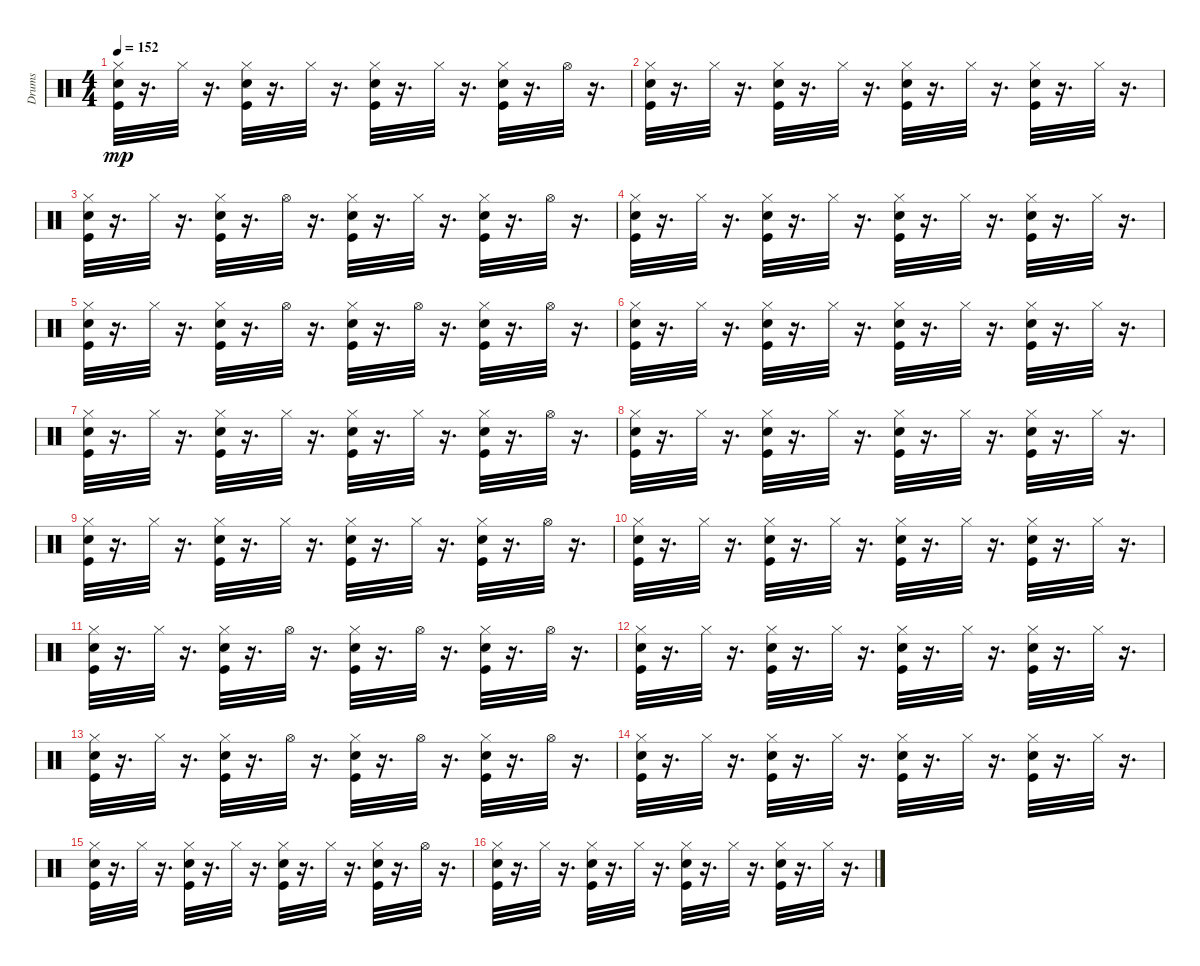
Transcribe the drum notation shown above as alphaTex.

\track ("Drums   " "Drums   ") {instrument percussion}
\staff {score}
\articulation defaults
\ts (4 4)
\tempo 152
\clef neutral
\ks c
("Snare (hit) 2" "Hi-Hat (closed)" "Kick (hit)").32{dy mp} r.16{d} "Hi-Hat (closed)".32 r.16{d} ("Snare (hit) 2" "Hi-Hat (closed)" "Kick (hit)").32 r.16{d} "Hi-Hat (closed)".32 r.16{d} ("Snare (hit) 2" "Hi-Hat (closed)" "Kick (hit)").32 r.16{d} "Hi-Hat (closed)".32 r.16{d} ("Snare (hit) 2" "Hi-Hat (closed)" "Kick (hit)").32 r.16{d} "Hi-Hat (open)".32 r.16{d} |
("Snare (hit) 2" "Hi-Hat (closed)" "Kick (hit)").32 r.16{d} "Hi-Hat (closed)".32 r.16{d} ("Snare (hit) 2" "Hi-Hat (closed)" "Kick (hit)").32 r.16{d} "Hi-Hat (closed)".32 r.16{d} ("Snare (hit) 2" "Hi-Hat (closed)" "Kick (hit)").32 r.16{d} "Hi-Hat (closed)".32 r.16{d} ("Snare (hit) 2" "Hi-Hat (closed)" "Kick (hit)").32 r.16{d} "Hi-Hat (closed)".32 r.16{d} |
("Snare (hit) 2" "Hi-Hat (closed)" "Kick (hit)").32 r.16{d} "Hi-Hat (closed)".32 r.16{d} ("Snare (hit) 2" "Hi-Hat (closed)" "Kick (hit)").32 r.16{d} "Hi-Hat (open)".32 r.16{d} ("Snare (hit) 2" "Hi-Hat (closed)" "Kick (hit)").32 r.16{d} "Hi-Hat (closed)".32 r.16{d} ("Snare (hit) 2" "Hi-Hat (closed)" "Kick (hit)").32 r.16{d} "Hi-Hat (open)".32 r.16{d} |
("Snare (hit) 2" "Hi-Hat (closed)" "Kick (hit)").32 r.16{d} "Hi-Hat (closed)".32 r.16{d} ("Snare (hit) 2" "Hi-Hat (closed)" "Kick (hit)").32 r.16{d} "Hi-Hat (closed)".32 r.16{d} ("Snare (hit) 2" "Hi-Hat (closed)" "Kick (hit)").32 r.16{d} "Hi-Hat (closed)".32 r.16{d} ("Snare (hit) 2" "Hi-Hat (closed)" "Kick (hit)").32 r.16{d} "Hi-Hat (closed)".32 r.16{d} |
("Snare (hit) 2" "Hi-Hat (closed)" "Kick (hit)").32 r.16{d} "Hi-Hat (closed)".32 r.16{d} ("Snare (hit) 2" "Hi-Hat (closed)" "Kick (hit)").32 r.16{d} "Hi-Hat (open)".32 r.16{d} ("Snare (hit) 2" "Hi-Hat (closed)" "Kick (hit)").32 r.16{d} "Hi-Hat (open)".32 r.16{d} ("Snare (hit) 2" "Hi-Hat (closed)" "Kick (hit)").32 r.16{d} "Hi-Hat (open)".32 r.16{d} |
("Snare (hit) 2" "Hi-Hat (closed)" "Kick (hit)").32 r.16{d} "Hi-Hat (closed)".32 r.16{d} ("Snare (hit) 2" "Hi-Hat (closed)" "Kick (hit)").32 r.16{d} "Hi-Hat (closed)".32 r.16{d} ("Snare (hit) 2" "Hi-Hat (closed)" "Kick (hit)").32 r.16{d} "Hi-Hat (closed)".32 r.16{d} ("Snare (hit) 2" "Hi-Hat (closed)" "Kick (hit)").32 r.16{d} "Hi-Hat (closed)".32 r.16{d} |
("Snare (hit) 2" "Hi-Hat (closed)" "Kick (hit)").32 r.16{d} "Hi-Hat (closed)".32 r.16{d} ("Snare (hit) 2" "Hi-Hat (closed)" "Kick (hit)").32 r.16{d} "Hi-Hat (closed)".32 r.16{d} ("Snare (hit) 2" "Hi-Hat (closed)" "Kick (hit)").32 r.16{d} "Hi-Hat (closed)".32 r.16{d} ("Snare (hit) 2" "Hi-Hat (closed)" "Kick (hit)").32 r.16{d} "Hi-Hat (open)".32 r.16{d} |
("Snare (hit) 2" "Hi-Hat (closed)" "Kick (hit)").32 r.16{d} "Hi-Hat (closed)".32 r.16{d} ("Snare (hit) 2" "Hi-Hat (closed)" "Kick (hit)").32 r.16{d} "Hi-Hat (closed)".32 r.16{d} ("Snare (hit) 2" "Hi-Hat (closed)" "Kick (hit)").32 r.16{d} "Hi-Hat (closed)".32 r.16{d} ("Snare (hit) 2" "Hi-Hat (closed)" "Kick (hit)").32 r.16{d} "Hi-Hat (closed)".32 r.16{d} |
("Snare (hit) 2" "Hi-Hat (closed)" "Kick (hit)").32 r.16{d} "Hi-Hat (closed)".32 r.16{d} ("Snare (hit) 2" "Hi-Hat (closed)" "Kick (hit)").32 r.16{d} "Hi-Hat (closed)".32 r.16{d} ("Snare (hit) 2" "Hi-Hat (closed)" "Kick (hit)").32 r.16{d} "Hi-Hat (closed)".32 r.16{d} ("Snare (hit) 2" "Hi-Hat (closed)" "Kick (hit)").32 r.16{d} "Hi-Hat (open)".32 r.16{d} |
("Snare (hit) 2" "Hi-Hat (closed)" "Kick (hit)").32 r.16{d} "Hi-Hat (closed)".32 r.16{d} ("Snare (hit) 2" "Hi-Hat (closed)" "Kick (hit)").32 r.16{d} "Hi-Hat (closed)".32 r.16{d} ("Snare (hit) 2" "Hi-Hat (closed)" "Kick (hit)").32 r.16{d} "Hi-Hat (closed)".32 r.16{d} ("Snare (hit) 2" "Hi-Hat (closed)" "Kick (hit)").32 r.16{d} "Hi-Hat (closed)".32 r.16{d} |
("Snare (hit) 2" "Hi-Hat (closed)" "Kick (hit)").32 r.16{d} "Hi-Hat (closed)".32 r.16{d} ("Snare (hit) 2" "Hi-Hat (closed)" "Kick (hit)").32 r.16{d} "Hi-Hat (open)".32 r.16{d} ("Snare (hit) 2" "Hi-Hat (closed)" "Kick (hit)").32 r.16{d} "Hi-Hat (open)".32 r.16{d} ("Snare (hit) 2" "Hi-Hat (closed)" "Kick (hit)").32 r.16{d} "Hi-Hat (open)".32 r.16{d} |
("Snare (hit) 2" "Hi-Hat (closed)" "Kick (hit)").32 r.16{d} "Hi-Hat (closed)".32 r.16{d} ("Snare (hit) 2" "Hi-Hat (closed)" "Kick (hit)").32 r.16{d} "Hi-Hat (closed)".32 r.16{d} ("Snare (hit) 2" "Hi-Hat (closed)" "Kick (hit)").32 r.16{d} "Hi-Hat (closed)".32 r.16{d} ("Snare (hit) 2" "Hi-Hat (closed)" "Kick (hit)").32 r.16{d} "Hi-Hat (closed)".32 r.16{d} |
("Snare (hit) 2" "Hi-Hat (closed)" "Kick (hit)").32 r.16{d} "Hi-Hat (closed)".32 r.16{d} ("Snare (hit) 2" "Hi-Hat (closed)" "Kick (hit)").32 r.16{d} "Hi-Hat (open)".32 r.16{d} ("Snare (hit) 2" "Hi-Hat (closed)" "Kick (hit)").32 r.16{d} "Hi-Hat (open)".32 r.16{d} ("Snare (hit) 2" "Hi-Hat (closed)" "Kick (hit)").32 r.16{d} "Hi-Hat (open)".32 r.16{d} |
("Snare (hit) 2" "Hi-Hat (closed)" "Kick (hit)").32 r.16{d} "Hi-Hat (closed)".32 r.16{d} ("Snare (hit) 2" "Hi-Hat (closed)" "Kick (hit)").32 r.16{d} "Hi-Hat (closed)".32 r.16{d} ("Snare (hit) 2" "Hi-Hat (closed)" "Kick (hit)").32 r.16{d} "Hi-Hat (closed)".32 r.16{d} ("Snare (hit) 2" "Hi-Hat (closed)" "Kick (hit)").32 r.16{d} "Hi-Hat (closed)".32 r.16{d} |
("Snare (hit) 2" "Hi-Hat (closed)" "Kick (hit)").32 r.16{d} "Hi-Hat (closed)".32 r.16{d} ("Snare (hit) 2" "Hi-Hat (closed)" "Kick (hit)").32 r.16{d} "Hi-Hat (closed)".32 r.16{d} ("Snare (hit) 2" "Hi-Hat (closed)" "Kick (hit)").32 r.16{d} "Hi-Hat (closed)".32 r.16{d} ("Snare (hit) 2" "Hi-Hat (closed)" "Kick (hit)").32 r.16{d} "Hi-Hat (open)".32 r.16{d} |
("Snare (hit) 2" "Hi-Hat (closed)" "Kick (hit)").32 r.16{d} "Hi-Hat (closed)".32 r.16{d} ("Snare (hit) 2" "Hi-Hat (closed)" "Kick (hit)").32 r.16{d} "Hi-Hat (closed)".32 r.16{d} ("Snare (hit) 2" "Hi-Hat (closed)" "Kick (hit)").32 r.16{d} "Hi-Hat (closed)".32 r.16{d} ("Snare (hit) 2" "Hi-Hat (closed)" "Kick (hit)").32 r.16{d} "Hi-Hat (closed)".32 r.16{d}
